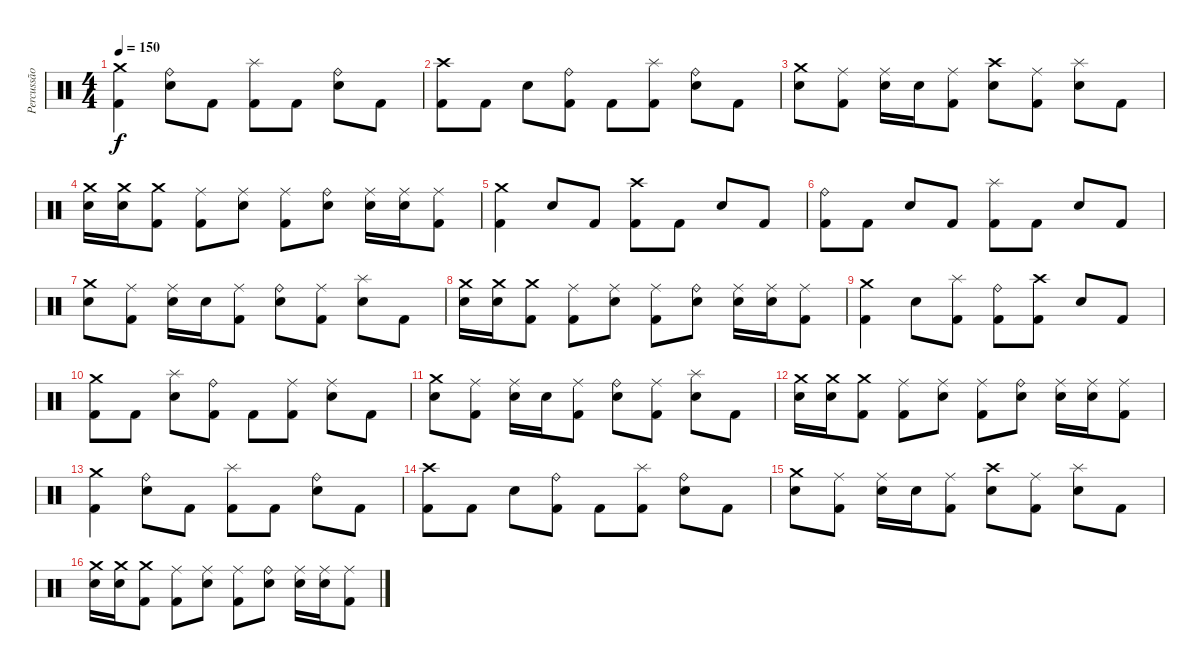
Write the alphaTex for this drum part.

\track ("Percussão" "Percussão") {instrument percussion}
\staff {score}
\articulation defaults
\ts (4 4)
\tempo 150
\clef neutral
\ks c
("Kick (hit) 2" "Crash medium (hit)").4{dy f} ("Snare (hit) 2" "Ride (bell)").8 "Kick (hit) 2".8 ("Kick (hit) 2" "Splash (hit)").8 "Kick (hit) 2".8 ("Snare (hit) 2" "Ride (bell)").8 "Kick (hit) 2".8 |
("Kick (hit) 2" "Crash high (hit)").8 "Kick (hit) 2".8 "Snare (hit) 2".8 ("Kick (hit) 2" "Ride (bell)").8 "Kick (hit) 2".8 ("Kick (hit) 2" "Splash (hit)").8 ("Snare (hit) 2" "Ride (bell)").8 "Kick (hit) 2".8 |
("Snare (hit) 2" "Crash medium (hit)").8 ("Kick (hit) 2" "Ride (middle)").8 ("Snare (hit) 2" "Ride (middle)").16 "Snare (hit) 2".16 ("Kick (hit) 2" "Ride (middle)").8 ("Snare (hit) 2" "Crash high (hit)").8 ("Kick (hit) 2" "Ride (middle)").8 ("Snare (hit) 2" "Splash (hit)").8 "Kick (hit) 2".8 |
("Snare (hit) 2" "Crash medium (hit)").16 ("Snare (hit) 2" "Crash medium (hit)").16 ("Kick (hit) 2" "Crash medium (hit)").8 ("Kick (hit) 2" "Ride (middle)").8 ("Snare (hit) 2" "Ride (middle)").8 ("Kick (hit) 2" "Ride (middle)").8 ("Snare (hit) 2" "Ride (bell)").8 ("Snare (hit) 2" "Ride (middle)").16 ("Snare (hit) 2" "Ride (middle)").16 ("Kick (hit) 2" "Ride (middle)").8 |
("Kick (hit) 2" "Crash medium (hit)").4 "Snare (hit) 2".8 "Kick (hit) 2".8 ("Kick (hit) 2" "Crash high (hit)").8 "Kick (hit) 2".8 "Snare (hit) 2".8 "Kick (hit) 2".8 |
("Kick (hit) 2" "Ride (bell)").8 "Kick (hit) 2".8 "Snare (hit) 2".8 "Kick (hit) 2".8 ("Kick (hit) 2" "Splash (hit)").8 "Kick (hit) 2".8 "Snare (hit) 2".8 "Kick (hit) 2".8 |
("Snare (hit) 2" "Crash medium (hit)").8 ("Kick (hit) 2" "Ride (middle)").8 ("Snare (hit) 2" "Ride (middle)").16 "Snare (hit) 2".16 ("Kick (hit) 2" "Ride (middle)").8 ("Snare (hit) 2" "Ride (bell)").8 ("Kick (hit) 2" "Ride (middle)").8 ("Snare (hit) 2" "Splash (hit)").8 "Kick (hit) 2".8 |
("Snare (hit) 2" "Crash medium (hit)").16 ("Snare (hit) 2" "Crash medium (hit)").16 ("Kick (hit) 2" "Crash medium (hit)").8 ("Kick (hit) 2" "Ride (middle)").8 ("Snare (hit) 2" "Ride (middle)").8 ("Kick (hit) 2" "Ride (middle)").8 ("Snare (hit) 2" "Ride (bell)").8 ("Snare (hit) 2" "Ride (middle)").16 ("Snare (hit) 2" "Ride (middle)").16 ("Kick (hit) 2" "Ride (middle)").8 |
("Kick (hit) 2" "Crash medium (hit)").4 "Snare (hit) 2".8 ("Kick (hit) 2" "Splash (hit)").8 ("Kick (hit) 2" "Ride (bell)").8 ("Kick (hit) 2" "Crash high (hit)").8 "Snare (hit) 2".8 "Kick (hit) 2".8 |
("Kick (hit) 2" "Crash medium (hit)").8 "Kick (hit) 2".8 ("Snare (hit) 2" "Splash (hit)").8 ("Kick (hit) 2" "Ride (bell)").8 "Kick (hit) 2".8 ("Kick (hit) 2" "Ride (middle)").8 ("Snare (hit) 2" "Ride (middle)").8 "Kick (hit) 2".8 |
("Snare (hit) 2" "Crash medium (hit)").8 ("Kick (hit) 2" "Ride (middle)").8 ("Snare (hit) 2" "Ride (middle)").16 "Snare (hit) 2".16 ("Kick (hit) 2" "Ride (middle)").8 ("Snare (hit) 2" "Ride (bell)").8 ("Kick (hit) 2" "Ride (middle)").8 ("Snare (hit) 2" "Splash (hit)").8 "Kick (hit) 2".8 |
("Snare (hit) 2" "Crash medium (hit)").16 ("Snare (hit) 2" "Crash medium (hit)").16 ("Kick (hit) 2" "Crash medium (hit)").8 ("Kick (hit) 2" "Ride (middle)").8 ("Snare (hit) 2" "Ride (middle)").8 ("Kick (hit) 2" "Ride (middle)").8 ("Snare (hit) 2" "Ride (bell)").8 ("Snare (hit) 2" "Ride (middle)").16 ("Snare (hit) 2" "Ride (middle)").16 ("Kick (hit) 2" "Ride (middle)").8 |
("Kick (hit) 2" "Crash medium (hit)").4 ("Snare (hit) 2" "Ride (bell)").8 "Kick (hit) 2".8 ("Kick (hit) 2" "Splash (hit)").8 "Kick (hit) 2".8 ("Snare (hit) 2" "Ride (bell)").8 "Kick (hit) 2".8 |
("Kick (hit) 2" "Crash high (hit)").8 "Kick (hit) 2".8 "Snare (hit) 2".8 ("Kick (hit) 2" "Ride (bell)").8 "Kick (hit) 2".8 ("Kick (hit) 2" "Splash (hit)").8 ("Snare (hit) 2" "Ride (bell)").8 "Kick (hit) 2".8 |
("Snare (hit) 2" "Crash medium (hit)").8 ("Kick (hit) 2" "Ride (middle)").8 ("Snare (hit) 2" "Ride (middle)").16 "Snare (hit) 2".16 ("Kick (hit) 2" "Ride (middle)").8 ("Snare (hit) 2" "Crash high (hit)").8 ("Kick (hit) 2" "Ride (middle)").8 ("Snare (hit) 2" "Splash (hit)").8 "Kick (hit) 2".8 |
("Snare (hit) 2" "Crash medium (hit)").16 ("Snare (hit) 2" "Crash medium (hit)").16 ("Kick (hit) 2" "Crash medium (hit)").8 ("Kick (hit) 2" "Ride (middle)").8 ("Snare (hit) 2" "Ride (middle)").8 ("Kick (hit) 2" "Ride (middle)").8 ("Snare (hit) 2" "Ride (bell)").8 ("Snare (hit) 2" "Ride (middle)").16 ("Snare (hit) 2" "Ride (middle)").16 ("Kick (hit) 2" "Ride (middle)").8
